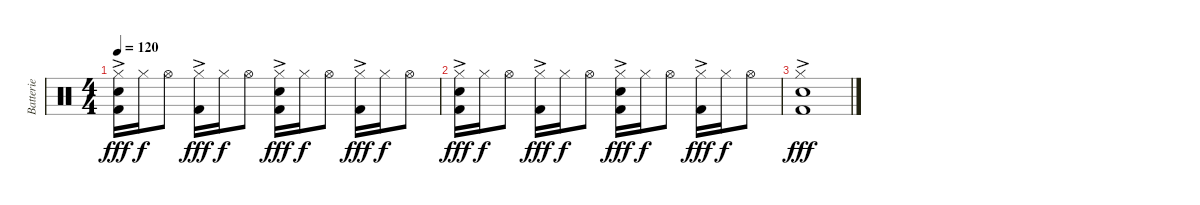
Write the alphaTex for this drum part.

\track ("Batterie" "Batterie") {instrument percussion}
\staff {score}
\articulation defaults
\ts (4 4)
\tempo 120
\clef neutral
\ks c
("Hi-Hat (closed)" "Electric Snare (hit)"{ac} "Kick (hit) 2"{ac}).16{dy fff} "Hi-Hat (closed)".16{dy f} "Hi-Hat (open)".8 ("Hi-Hat (closed)" "Kick (hit) 2"{ac}).16{dy fff} "Hi-Hat (closed)".16{dy f} "Hi-Hat (open)".8 ("Hi-Hat (closed)" "Electric Snare (hit)"{ac} "Kick (hit) 2"{ac}).16{dy fff} "Hi-Hat (closed)".16{dy f} "Hi-Hat (open)".8 ("Hi-Hat (closed)" "Kick (hit) 2"{ac}).16{dy fff} "Hi-Hat (closed)".16{dy f} "Hi-Hat (open)".8 |
("Hi-Hat (closed)" "Electric Snare (hit)"{ac} "Kick (hit) 2"{ac}).16{dy fff} "Hi-Hat (closed)".16{dy f} "Hi-Hat (open)".8 ("Hi-Hat (closed)" "Kick (hit) 2"{ac}).16{dy fff} "Hi-Hat (closed)".16{dy f} "Hi-Hat (open)".8 ("Hi-Hat (closed)" "Electric Snare (hit)"{ac} "Kick (hit) 2"{ac}).16{dy fff} "Hi-Hat (closed)".16{dy f} "Hi-Hat (open)".8 ("Hi-Hat (closed)" "Kick (hit) 2"{ac}).16{dy fff} "Hi-Hat (closed)".16{dy f} "Hi-Hat (open)".8 |
("Hi-Hat (closed)"{ac} "Electric Snare (hit)"{ac} "Kick (hit) 2"{ac}).1{dy fff}
